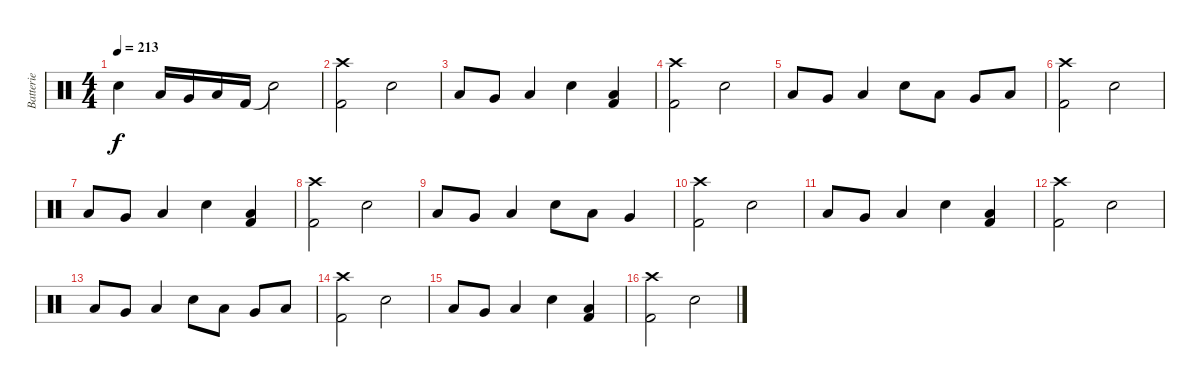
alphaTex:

\track ("Batterie" "Batterie") {instrument percussion}
\staff {score}
\articulation defaults
\ts (4 4)
\tempo 213
\clef neutral
\ks c "Electric Snare (hit)".4{dy f} "Low Tom (hit)".16 "Very Low Tom (hit)".16 "Low Floor Tom (hit)".16 "Kick (hit) 2".16 "Snare (hit)"{t}.2
|
("Crash high (hit)" "Kick (hit) 2").2 "Electric Snare (hit)".2 |
"Low Tom (hit)".8 "Very Low Tom (hit)".8 "Low Floor Tom (hit)".4 "Electric Snare (hit)".4 ("Kick (hit) 2" "Low Floor Tom (hit)").4 |
("Crash high (hit)" "Kick (hit) 2").2 "Electric Snare (hit)".2 |
"Low Tom (hit)".8 "Very Low Tom (hit)".8 "Low Floor Tom (hit)".4 "Electric Snare (hit)".8 "Low Tom (hit)".8 "Very Low Tom (hit)".8 "Low Floor Tom (hit)".8 |
("Crash high (hit)" "Kick (hit) 2").2 "Electric Snare (hit)".2 |
"Low Tom (hit)".8 "Very Low Tom (hit)".8 "Low Floor Tom (hit)".4 "Electric Snare (hit)".4 ("Kick (hit) 2" "Low Floor Tom (hit)").4 |
("Crash high (hit)" "Kick (hit) 2").2 "Electric Snare (hit)".2 |
"Low Tom (hit)".8 "Very Low Tom (hit)".8 "Low Floor Tom (hit)".4 "Electric Snare (hit)".8 "Low Tom (hit)".8 "Very Low Tom (hit)".4 |
("Crash high (hit)" "Kick (hit) 2").2 "Electric Snare (hit)".2 |
"Low Tom (hit)".8 "Very Low Tom (hit)".8 "Low Floor Tom (hit)".4 "Electric Snare (hit)".4 ("Kick (hit) 2" "Low Floor Tom (hit)").4 |
("Crash high (hit)" "Kick (hit) 2").2 "Electric Snare (hit)".2 |
"Low Tom (hit)".8 "Very Low Tom (hit)".8 "Low Floor Tom (hit)".4 "Electric Snare (hit)".8 "Low Tom (hit)".8 "Very Low Tom (hit)".8 "Low Floor Tom (hit)".8 |
("Crash high (hit)" "Kick (hit) 2").2 "Electric Snare (hit)".2 |
"Low Tom (hit)".8 "Very Low Tom (hit)".8 "Low Floor Tom (hit)".4 "Electric Snare (hit)".4 ("Kick (hit) 2" "Low Floor Tom (hit)").4 |
("Crash high (hit)" "Kick (hit) 2").2 "Electric Snare (hit)".2
